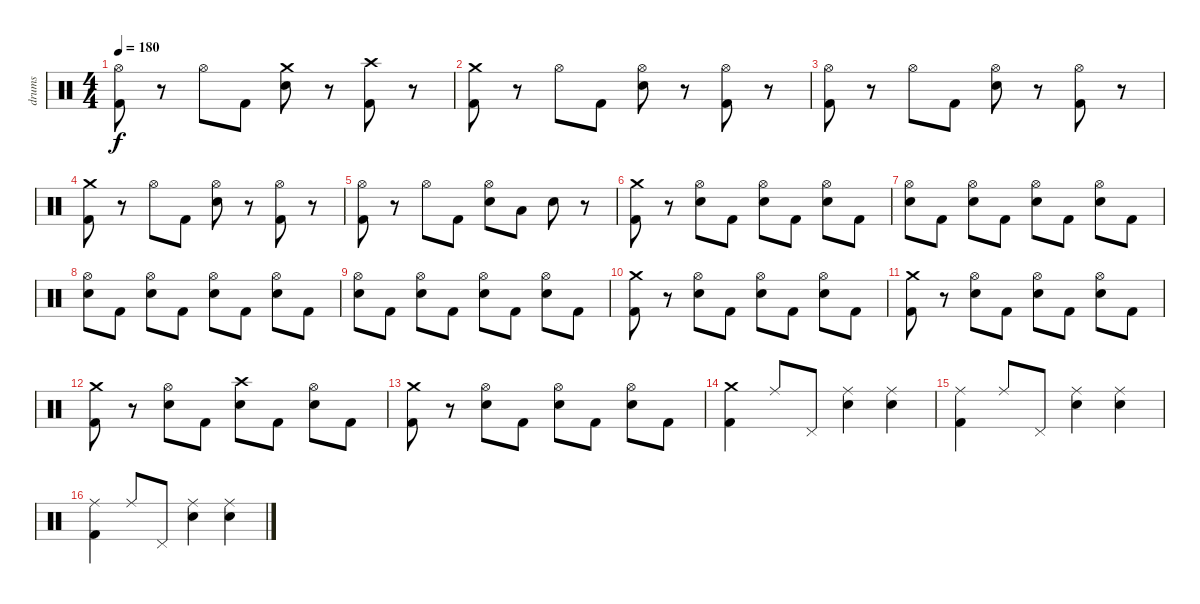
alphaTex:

\track ("drums" "drums") {instrument percussion}
\staff {score}
\articulation defaults
\ts (4 4)
\tempo 180
\clef neutral
\ks c
("Hi-Hat (open)" "Kick (hit) 2").8{dy f} r.8 "Hi-Hat (open)".8 "Kick (hit) 2".8 ("Crash medium (hit)" "Snare (hit) 2").8 r.8 ("Crash high (hit)" "Kick (hit) 2").8 r.8 |
("Crash medium (hit)" "Kick (hit) 2").8 r.8 "Hi-Hat (open)".8 "Kick (hit) 2".8 ("Hi-Hat (open)" "Snare (hit) 2").8 r.8 ("Hi-Hat (open)" "Kick (hit) 2").8 r.8 |
("Hi-Hat (open)" "Kick (hit) 2").8 r.8 "Hi-Hat (open)".8 "Kick (hit) 2".8 ("Hi-Hat (open)" "Snare (hit) 2").8 r.8 ("Hi-Hat (open)" "Kick (hit) 2").8 r.8 |
("Crash medium (hit)" "Kick (hit) 2").8 r.8 "Hi-Hat (open)".8 "Kick (hit) 2".8 ("Hi-Hat (open)" "Snare (hit) 2").8 r.8 ("Hi-Hat (open)" "Kick (hit) 2").8 r.8 |
("Hi-Hat (open)" "Kick (hit) 2").8 r.8 "Hi-Hat (open)".8 "Kick (hit) 2".8 ("Hi-Hat (open)" "Snare (hit) 2").8 "Low Tom (hit)".8 "Snare (hit) 2".8 r.8 |
("Crash medium (hit)" "Kick (hit) 2").8 r.8 ("Hi-Hat (open)" "Snare (hit) 2").8 "Kick (hit) 2".8 ("Hi-Hat (open)" "Snare (hit) 2").8 "Kick (hit) 2".8 ("Hi-Hat (open)" "Snare (hit) 2").8 "Kick (hit) 2".8 |
("Hi-Hat (open)" "Snare (hit) 2").8 "Kick (hit) 2".8 ("Hi-Hat (open)" "Snare (hit) 2").8 "Kick (hit) 2".8 ("Hi-Hat (open)" "Snare (hit) 2").8 "Kick (hit) 2".8 ("Hi-Hat (open)" "Snare (hit) 2").8 "Kick (hit) 2".8 |
("Hi-Hat (open)" "Snare (hit) 2").8 "Kick (hit) 2".8 ("Hi-Hat (open)" "Snare (hit) 2").8 "Kick (hit) 2".8 ("Hi-Hat (open)" "Snare (hit) 2").8 "Kick (hit) 2".8 ("Hi-Hat (open)" "Snare (hit) 2").8 "Kick (hit) 2".8 |
("Hi-Hat (open)" "Snare (hit) 2").8 "Kick (hit) 2".8 ("Hi-Hat (open)" "Snare (hit) 2").8 "Kick (hit) 2".8 ("Hi-Hat (open)" "Snare (hit) 2").8 "Kick (hit) 2".8 ("Hi-Hat (open)" "Snare (hit) 2").8 "Kick (hit) 2".8 |
("Crash medium (hit)" "Kick (hit) 2").8 r.8 ("Hi-Hat (open)" "Snare (hit) 2").8 "Kick (hit) 2".8 ("Hi-Hat (open)" "Snare (hit) 2").8 "Kick (hit) 2".8 ("Hi-Hat (open)" "Snare (hit) 2").8 "Kick (hit) 2".8 |
("Crash medium (hit)" "Kick (hit) 2").8 r.8 ("Hi-Hat (open)" "Snare (hit) 2").8 "Kick (hit) 2".8 ("Hi-Hat (open)" "Snare (hit) 2").8 "Kick (hit) 2".8 ("Hi-Hat (open)" "Snare (hit) 2").8 "Kick (hit) 2".8 |
("Crash medium (hit)" "Kick (hit) 2").8 r.8 ("Hi-Hat (open)" "Snare (hit) 2").8 "Kick (hit) 2".8 ("Crash high (hit)" "Snare (hit) 2").8 "Kick (hit) 2".8 ("Hi-Hat (open)" "Snare (hit) 2").8 "Kick (hit) 2".8 |
("Crash medium (hit)" "Kick (hit) 2").8 r.8 ("Hi-Hat (open)" "Snare (hit) 2").8 "Kick (hit) 2".8 ("Hi-Hat (open)" "Snare (hit) 2").8 "Kick (hit) 2".8 ("Hi-Hat (open)" "Snare (hit) 2").8 "Kick (hit) 2".8 |
("Crash medium (hit)" "Kick (hit) 2").4 "Ride (middle)".8 "Pedal Hi-Hat (hit)".8 ("Ride (middle)" "Snare (hit) 2").4 ("Ride (middle)" "Snare (hit) 2").4 |
("Ride (middle)" "Kick (hit) 2").4 "Ride (middle)".8 "Pedal Hi-Hat (hit)".8 ("Ride (middle)" "Snare (hit) 2").4 ("Ride (middle)" "Snare (hit) 2").4 |
("Ride (middle)" "Kick (hit) 2").4 "Ride (middle)".8 "Pedal Hi-Hat (hit)".8 ("Ride (middle)" "Snare (hit) 2").4 ("Ride (middle)" "Snare (hit) 2").4
